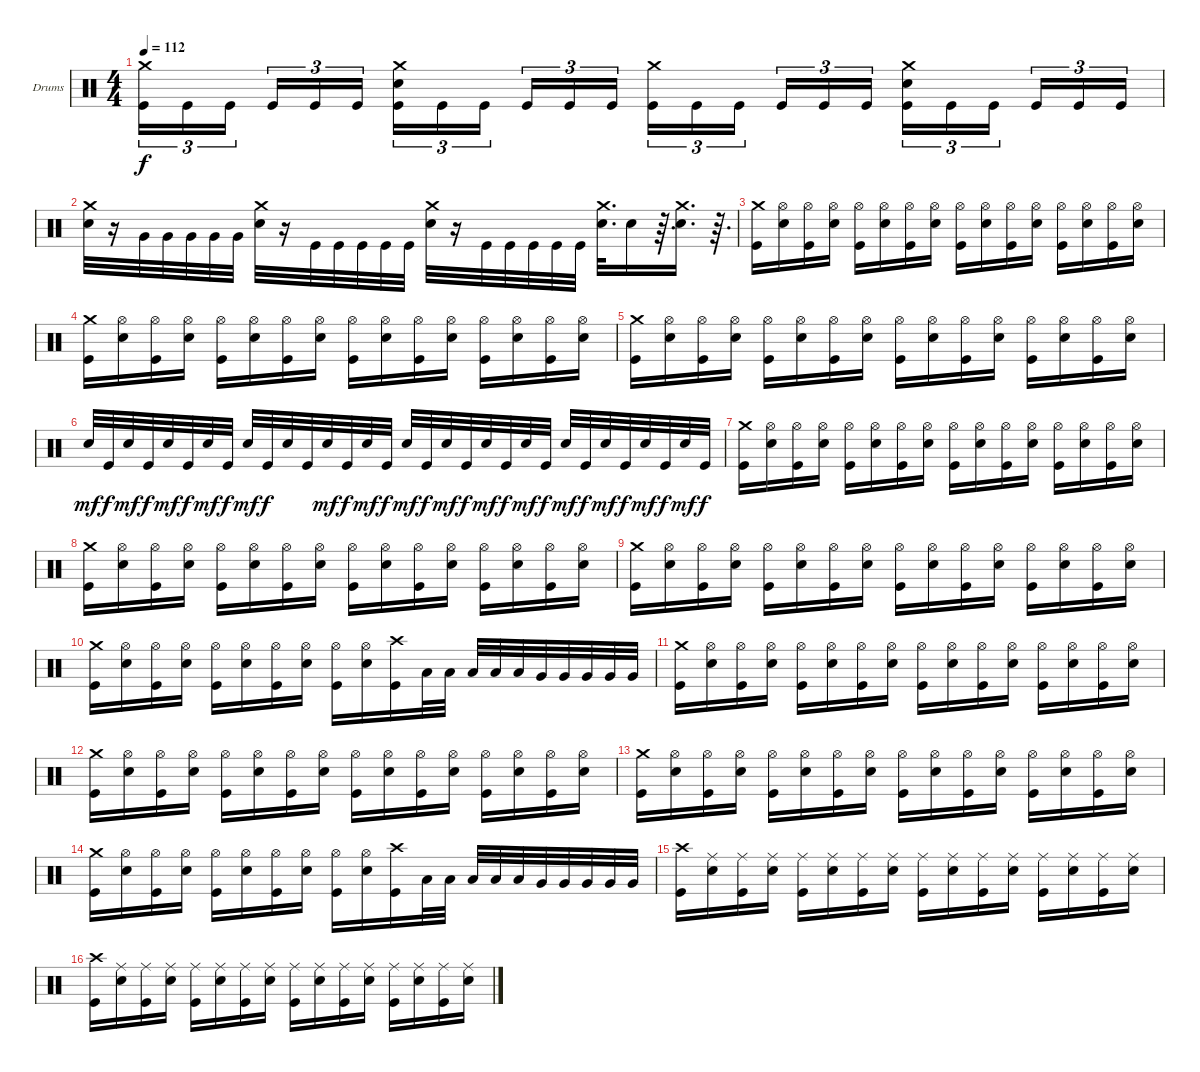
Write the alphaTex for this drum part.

\bracketExtendMode groupsimilarinstruments
\firstSystemTrackNameOrientation horizontal
\otherSystemsTrackNameOrientation horizontal
\track ("Drumkit" "Drums") {instrument percussion}
\staff {score}
\articulation defaults
\ts (4 4)
\tempo 112
\clef neutral
\ks c
("Crash medium (hit)" "Kick (hit)").16{tu (3 2) dy f} "Kick (hit)".16{tu (3 2)} "Kick (hit)".16{tu (3 2)} "Kick (hit)".16{tu (3 2)} "Kick (hit)".16{tu (3 2)} "Kick (hit)".16{tu (3 2)} ("Crash medium (hit)" "Snare (hit) 2" "Kick (hit)").16{tu (3 2)} "Kick (hit)".16{tu (3 2)} "Kick (hit)".16{tu (3 2)} "Kick (hit)".16{tu (3 2)} "Kick (hit)".16{tu (3 2)} "Kick (hit)".16{tu (3 2)} ("Crash medium (hit)" "Kick (hit)").16{tu (3 2)} "Kick (hit)".16{tu (3 2)} "Kick (hit)".16{tu (3 2)} "Kick (hit)".16{tu (3 2)} "Kick (hit)".16{tu (3 2)} "Kick (hit)".16{tu (3 2)} ("Crash medium (hit)" "Snare (hit) 2" "Kick (hit)").16{tu (3 2)} "Kick (hit)".16{tu (3 2)} "Kick (hit)".16{tu (3 2)} "Kick (hit)".16{tu (3 2)} "Kick (hit)".16{tu (3 2)} "Kick (hit)".16{tu (3 2)} |
("Crash medium (hit)" "Snare (hit) 2").32 r.16 "Very Low Tom (hit)".32 "Very Low Tom (hit)".32 "Very Low Tom (hit)".32 "Very Low Tom (hit)".32 "Very Low Tom (hit)".32 ("Crash medium (hit)" "Snare (hit) 2").32 r.16 "Kick (hit)".32 "Kick (hit)".32 "Kick (hit)".32 "Kick (hit)".32 "Kick (hit)".32 ("Crash medium (hit)" "Snare (hit) 2").32 r.16 "Kick (hit)".32 "Kick (hit)".32 "Kick (hit)".32 "Kick (hit)".32 "Kick (hit)".32 ("Crash medium (hit)" "Snare (hit) 2").32{d} "Snare (hit) 2".16 r.64{d} ("Crash medium (hit)" "Snare (hit) 2").16{d} r.64{d} |
("Crash medium (hit)" "Kick (hit)").16 ("Hi-Hat (open)" "Snare (hit) 2").16 ("Hi-Hat (open)" "Kick (hit)").16 ("Hi-Hat (open)" "Snare (hit) 2").16 ("Hi-Hat (open)" "Kick (hit)").16 ("Hi-Hat (open)" "Snare (hit) 2").16 ("Hi-Hat (open)" "Kick (hit)").16 ("Hi-Hat (open)" "Snare (hit) 2").16 ("Hi-Hat (open)" "Kick (hit)").16 ("Hi-Hat (open)" "Snare (hit) 2").16 ("Hi-Hat (open)" "Kick (hit)").16 ("Hi-Hat (open)" "Snare (hit) 2").16 ("Hi-Hat (open)" "Kick (hit)").16 ("Hi-Hat (open)" "Snare (hit) 2").16 ("Hi-Hat (open)" "Kick (hit)").16 ("Hi-Hat (open)" "Snare (hit) 2").16 |
("Crash medium (hit)" "Kick (hit)").16 ("Hi-Hat (open)" "Snare (hit) 2").16 ("Hi-Hat (open)" "Kick (hit)").16 ("Hi-Hat (open)" "Snare (hit) 2").16 ("Hi-Hat (open)" "Kick (hit)").16 ("Hi-Hat (open)" "Snare (hit) 2").16 ("Hi-Hat (open)" "Kick (hit)").16 ("Hi-Hat (open)" "Snare (hit) 2").16 ("Hi-Hat (open)" "Kick (hit)").16 ("Hi-Hat (open)" "Snare (hit) 2").16 ("Hi-Hat (open)" "Kick (hit)").16 ("Hi-Hat (open)" "Snare (hit) 2").16 ("Hi-Hat (open)" "Kick (hit)").16 ("Hi-Hat (open)" "Snare (hit) 2").16 ("Hi-Hat (open)" "Kick (hit)").16 ("Hi-Hat (open)" "Snare (hit) 2").16 |
("Crash medium (hit)" "Kick (hit)").16 ("Hi-Hat (open)" "Snare (hit) 2").16 ("Hi-Hat (open)" "Kick (hit)").16 ("Hi-Hat (open)" "Snare (hit) 2").16 ("Hi-Hat (open)" "Kick (hit)").16 ("Hi-Hat (open)" "Snare (hit) 2").16 ("Hi-Hat (open)" "Kick (hit)").16 ("Hi-Hat (open)" "Snare (hit) 2").16 ("Hi-Hat (open)" "Kick (hit)").16 ("Hi-Hat (open)" "Snare (hit) 2").16 ("Hi-Hat (open)" "Kick (hit)").16 ("Hi-Hat (open)" "Snare (hit) 2").16 ("Hi-Hat (open)" "Kick (hit)").16 ("Hi-Hat (open)" "Snare (hit) 2").16 ("Hi-Hat (open)" "Kick (hit)").16 ("Hi-Hat (open)" "Snare (hit) 2").16 |
"Snare (hit) 2".32{dy mf} "Kick (hit)".32{dy f} "Snare (hit) 2".32{dy mf} "Kick (hit)".32{dy f} "Snare (hit) 2".32{dy mf} "Kick (hit)".32{dy f} "Snare (hit) 2".32{dy mf} "Kick (hit)".32{dy f} "Snare (hit) 2".32{dy mf} "Kick (hit)".32{dy f} "Snare (hit) 2".32 "Kick (hit)".32 "Snare (hit) 2".32{dy mf} "Kick (hit)".32{dy f} "Snare (hit) 2".32{dy mf} "Kick (hit)".32{dy f} "Snare (hit) 2".32{dy mf} "Kick (hit)".32{dy f} "Snare (hit) 2".32{dy mf} "Kick (hit)".32{dy f} "Snare (hit) 2".32{dy mf} "Kick (hit)".32{dy f} "Snare (hit) 2".32{dy mf} "Kick (hit)".32{dy f} "Snare (hit) 2".32{dy mf} "Kick (hit)".32{dy f} "Snare (hit) 2".32{dy mf} "Kick (hit)".32{dy f} "Snare (hit) 2".32{dy mf} "Kick (hit)".32{dy f} "Snare (hit) 2".32{dy mf} "Kick (hit)".32{dy f} |
("Crash medium (hit)" "Kick (hit)").16 ("Hi-Hat (open)" "Snare (hit) 2").16 ("Hi-Hat (open)" "Kick (hit)").16 ("Hi-Hat (open)" "Snare (hit) 2").16 ("Hi-Hat (open)" "Kick (hit)").16 ("Hi-Hat (open)" "Snare (hit) 2").16 ("Hi-Hat (open)" "Kick (hit)").16 ("Hi-Hat (open)" "Snare (hit) 2").16 ("Hi-Hat (open)" "Kick (hit)").16 ("Hi-Hat (open)" "Snare (hit) 2").16 ("Hi-Hat (open)" "Kick (hit)").16 ("Hi-Hat (open)" "Snare (hit) 2").16 ("Hi-Hat (open)" "Kick (hit)").16 ("Hi-Hat (open)" "Snare (hit) 2").16 ("Hi-Hat (open)" "Kick (hit)").16 ("Hi-Hat (open)" "Snare (hit) 2").16 |
("Crash medium (hit)" "Kick (hit)").16 ("Hi-Hat (open)" "Snare (hit) 2").16 ("Hi-Hat (open)" "Kick (hit)").16 ("Hi-Hat (open)" "Snare (hit) 2").16 ("Hi-Hat (open)" "Kick (hit)").16 ("Hi-Hat (open)" "Snare (hit) 2").16 ("Hi-Hat (open)" "Kick (hit)").16 ("Hi-Hat (open)" "Snare (hit) 2").16 ("Hi-Hat (open)" "Kick (hit)").16 ("Hi-Hat (open)" "Snare (hit) 2").16 ("Hi-Hat (open)" "Kick (hit)").16 ("Hi-Hat (open)" "Snare (hit) 2").16 ("Hi-Hat (open)" "Kick (hit)").16 ("Hi-Hat (open)" "Snare (hit) 2").16 ("Hi-Hat (open)" "Kick (hit)").16 ("Hi-Hat (open)" "Snare (hit) 2").16 |
("Crash medium (hit)" "Kick (hit)").16 ("Hi-Hat (open)" "Snare (hit) 2").16 ("Hi-Hat (open)" "Kick (hit)").16 ("Hi-Hat (open)" "Snare (hit) 2").16 ("Hi-Hat (open)" "Kick (hit)").16 ("Hi-Hat (open)" "Snare (hit) 2").16 ("Hi-Hat (open)" "Kick (hit)").16 ("Hi-Hat (open)" "Snare (hit) 2").16 ("Hi-Hat (open)" "Kick (hit)").16 ("Hi-Hat (open)" "Snare (hit) 2").16 ("Hi-Hat (open)" "Kick (hit)").16 ("Hi-Hat (open)" "Snare (hit) 2").16 ("Hi-Hat (open)" "Kick (hit)").16 ("Hi-Hat (open)" "Snare (hit) 2").16 ("Hi-Hat (open)" "Kick (hit)").16 ("Hi-Hat (open)" "Snare (hit) 2").16 |
("Crash medium (hit)" "Kick (hit)").16 ("Hi-Hat (open)" "Snare (hit) 2").16 ("Hi-Hat (open)" "Kick (hit)").16 ("Hi-Hat (open)" "Snare (hit) 2").16 ("Hi-Hat (open)" "Kick (hit)").16 ("Hi-Hat (open)" "Snare (hit) 2").16 ("Hi-Hat (open)" "Kick (hit)").16 ("Hi-Hat (open)" "Snare (hit) 2").16 ("Hi-Hat (open)" "Kick (hit)").16 ("Hi-Hat (open)" "Snare (hit) 2").16 ("Crash high (hit)" "Kick (hit)").16 "Low Tom (hit)".32 "Low Tom (hit)".32 "Low Tom (hit)".32 "Low Tom (hit)".32 "Low Tom (hit)".32 "Very Low Tom (hit)".32 "Very Low Tom (hit)".32 "Very Low Tom (hit)".32 "Very Low Tom (hit)".32 "Very Low Tom (hit)".32 |
("Crash medium (hit)" "Kick (hit)").16 ("Hi-Hat (open)" "Snare (hit) 2").16 ("Hi-Hat (open)" "Kick (hit)").16 ("Hi-Hat (open)" "Snare (hit) 2").16 ("Hi-Hat (open)" "Kick (hit)").16 ("Hi-Hat (open)" "Snare (hit) 2").16 ("Hi-Hat (open)" "Kick (hit)").16 ("Hi-Hat (open)" "Snare (hit) 2").16 ("Hi-Hat (open)" "Kick (hit)").16 ("Hi-Hat (open)" "Snare (hit) 2").16 ("Hi-Hat (open)" "Kick (hit)").16 ("Hi-Hat (open)" "Snare (hit) 2").16 ("Hi-Hat (open)" "Kick (hit)").16 ("Hi-Hat (open)" "Snare (hit) 2").16 ("Hi-Hat (open)" "Kick (hit)").16 ("Hi-Hat (open)" "Snare (hit) 2").16 |
("Crash medium (hit)" "Kick (hit)").16 ("Hi-Hat (open)" "Snare (hit) 2").16 ("Hi-Hat (open)" "Kick (hit)").16 ("Hi-Hat (open)" "Snare (hit) 2").16 ("Hi-Hat (open)" "Kick (hit)").16 ("Hi-Hat (open)" "Snare (hit) 2").16 ("Hi-Hat (open)" "Kick (hit)").16 ("Hi-Hat (open)" "Snare (hit) 2").16 ("Hi-Hat (open)" "Kick (hit)").16 ("Hi-Hat (open)" "Snare (hit) 2").16 ("Hi-Hat (open)" "Kick (hit)").16 ("Hi-Hat (open)" "Snare (hit) 2").16 ("Hi-Hat (open)" "Kick (hit)").16 ("Hi-Hat (open)" "Snare (hit) 2").16 ("Hi-Hat (open)" "Kick (hit)").16 ("Hi-Hat (open)" "Snare (hit) 2").16 |
("Crash medium (hit)" "Kick (hit)").16 ("Hi-Hat (open)" "Snare (hit) 2").16 ("Hi-Hat (open)" "Kick (hit)").16 ("Hi-Hat (open)" "Snare (hit) 2").16 ("Hi-Hat (open)" "Kick (hit)").16 ("Hi-Hat (open)" "Snare (hit) 2").16 ("Hi-Hat (open)" "Kick (hit)").16 ("Hi-Hat (open)" "Snare (hit) 2").16 ("Hi-Hat (open)" "Kick (hit)").16 ("Hi-Hat (open)" "Snare (hit) 2").16 ("Hi-Hat (open)" "Kick (hit)").16 ("Hi-Hat (open)" "Snare (hit) 2").16 ("Hi-Hat (open)" "Kick (hit)").16 ("Hi-Hat (open)" "Snare (hit) 2").16 ("Hi-Hat (open)" "Kick (hit)").16 ("Hi-Hat (open)" "Snare (hit) 2").16 |
("Crash medium (hit)" "Kick (hit)").16 ("Hi-Hat (open)" "Snare (hit) 2").16 ("Hi-Hat (open)" "Kick (hit)").16 ("Hi-Hat (open)" "Snare (hit) 2").16 ("Hi-Hat (open)" "Kick (hit)").16 ("Hi-Hat (open)" "Snare (hit) 2").16 ("Hi-Hat (open)" "Kick (hit)").16 ("Hi-Hat (open)" "Snare (hit) 2").16 ("Hi-Hat (open)" "Kick (hit)").16 ("Hi-Hat (open)" "Snare (hit) 2").16 ("Crash high (hit)" "Kick (hit)").16 "Low Tom (hit)".32 "Low Tom (hit)".32 "Low Tom (hit)".32 "Low Tom (hit)".32 "Low Tom (hit)".32 "Very Low Tom (hit)".32 "Very Low Tom (hit)".32 "Very Low Tom (hit)".32 "Very Low Tom (hit)".32 "Very Low Tom (hit)".32 |
("Crash high (hit)" "Kick (hit)").16 ("Ride (middle)" "Snare (hit) 2").16 ("Ride (middle)" "Kick (hit)").16 ("Ride (middle)" "Snare (hit) 2").16 ("Ride (middle)" "Kick (hit)").16 ("Ride (middle)" "Snare (hit) 2").16 ("Ride (middle)" "Kick (hit)").16 ("Ride (middle)" "Snare (hit) 2").16 ("Ride (middle)" "Kick (hit)").16 ("Ride (middle)" "Snare (hit) 2").16 ("Ride (middle)" "Kick (hit)").16 ("Ride (middle)" "Snare (hit) 2").16 ("Ride (middle)" "Kick (hit)").16 ("Ride (middle)" "Snare (hit) 2").16 ("Ride (middle)" "Kick (hit)").16 ("Ride (middle)" "Snare (hit) 2").16 |
("Crash high (hit)" "Kick (hit)").16 ("Ride (middle)" "Snare (hit) 2").16 ("Ride (middle)" "Kick (hit)").16 ("Ride (middle)" "Snare (hit) 2").16 ("Ride (middle)" "Kick (hit)").16 ("Ride (middle)" "Snare (hit) 2").16 ("Ride (middle)" "Kick (hit)").16 ("Ride (middle)" "Snare (hit) 2").16 ("Ride (middle)" "Kick (hit)").16 ("Ride (middle)" "Snare (hit) 2").16 ("Ride (middle)" "Kick (hit)").16 ("Ride (middle)" "Snare (hit) 2").16 ("Ride (middle)" "Kick (hit)").16 ("Ride (middle)" "Snare (hit) 2").16 ("Ride (middle)" "Kick (hit)").16 ("Ride (middle)" "Snare (hit) 2").16
